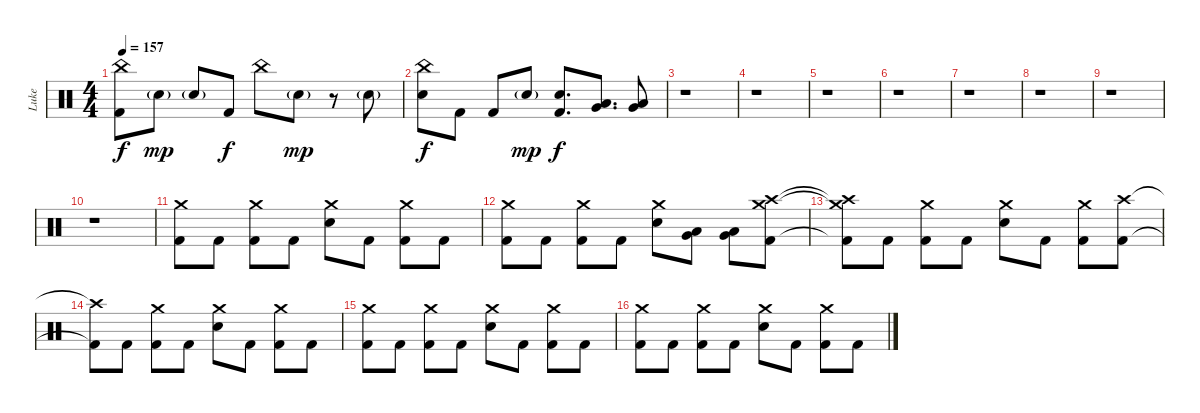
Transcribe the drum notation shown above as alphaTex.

\track ("Luke" "Luke") {instrument percussion}
\staff {score}
\articulation defaults
\ts (4 4)
\tempo 157
\clef neutral
\ks c
("China (hit)" "Kick (hit) 2").8{dy f} "Snare (hit) 2"{g}.8{dy mp} "Snare (hit) 2"{g}.8 "Kick (hit) 2".8{dy f} "China (hit)".8 "Snare (hit) 2"{g}.8{dy mp} r.8 "Snare (hit) 2"{g}.8 |
("China (hit)" "Electric Snare (hit)").8{dy f} "Kick (hit) 2".8 "Kick (hit) 2".8 "Snare (hit) 2"{g}.8{dy mp} ("Electric Snare (hit)" "Kick (hit) 2").8{d dy f} ("Very Low Tom (hit)" "Low Tom (hit)").8{d} ("Low Floor Tom (hit)" "Very Low Tom (hit)").8 |
r.1 |
r.1 |
r.1 |
r.1 |
r.1 |
r.1 |
r.1 |
r.1 |
("Crash medium (hit)" "Kick (hit) 2").8 "Kick (hit) 2".8 ("Crash medium (hit)" "Kick (hit) 2").8 "Kick (hit) 2".8 ("Crash medium (hit)" "Electric Snare (hit)").8 "Kick (hit) 2".8 ("Crash medium (hit)" "Kick (hit) 2").8 "Kick (hit) 2".8 |
("Crash medium (hit)" "Kick (hit) 2").8 "Kick (hit) 2".8 ("Crash medium (hit)" "Kick (hit) 2").8 "Kick (hit) 2".8 ("Crash medium (hit)" "Electric Snare (hit)").8 ("Very Low Tom (hit)" "Low Floor Tom (hit)").8 ("Very Low Tom (hit)" "Low Floor Tom (hit)").8 ("Crash medium (hit)" "Crash high (hit)" "Kick (hit) 2").8 |
("Crash medium (hit)"{t} "Crash high (hit)"{t} "Kick (hit) 2"{t}).8 "Kick (hit) 2".8 ("Crash medium (hit)" "Kick (hit) 2").8 "Kick (hit) 2".8 ("Crash medium (hit)" "Electric Snare (hit)").8 "Kick (hit) 2".8 ("Crash medium (hit)" "Kick (hit) 2").8 ("Crash high (hit)" "Kick (hit) 2").8 |
("Crash high (hit)"{t} "Kick (hit) 2"{t}).8 "Kick (hit) 2".8 ("Crash medium (hit)" "Kick (hit) 2").8 "Kick (hit) 2".8 ("Crash medium (hit)" "Electric Snare (hit)").8 "Kick (hit) 2".8 ("Crash medium (hit)" "Kick (hit) 2").8 "Kick (hit) 2".8 |
("Crash medium (hit)" "Kick (hit) 2").8 "Kick (hit) 2".8 ("Crash medium (hit)" "Kick (hit) 2").8 "Kick (hit) 2".8 ("Crash medium (hit)" "Electric Snare (hit)").8 "Kick (hit) 2".8 ("Crash medium (hit)" "Kick (hit) 2").8 "Kick (hit) 2".8 |
("Crash medium (hit)" "Kick (hit) 2").8 "Kick (hit) 2".8 ("Crash medium (hit)" "Kick (hit) 2").8 "Kick (hit) 2".8 ("Crash medium (hit)" "Electric Snare (hit)").8 "Kick (hit) 2".8 ("Crash medium (hit)" "Kick (hit) 2").8 "Kick (hit) 2".8
